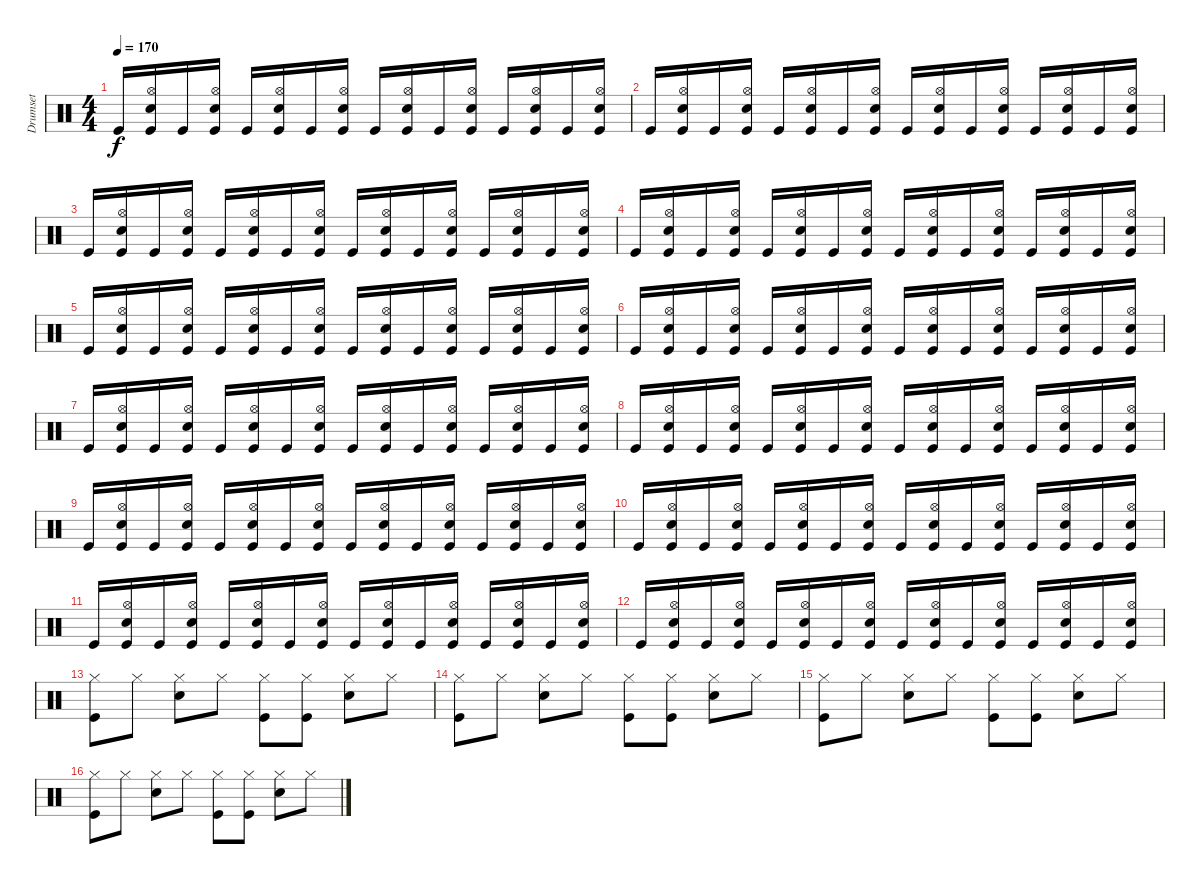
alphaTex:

\track ("Drumset" "Drumset") {instrument percussion}
\staff {score}
\articulation defaults
\ts (4 4)
\tempo 170
\clef neutral
\ks c "Kick (hit)".16{dy f}
("Hi-Hat (open)" "Snare (hit) 2" "Kick (hit)").16 "Kick (hit)".16 ("Hi-Hat (open)" "Snare (hit) 2" "Kick (hit)").16 "Kick (hit)".16 ("Hi-Hat (open)" "Snare (hit) 2" "Kick (hit)").16 "Kick (hit)".16 ("Hi-Hat (open)" "Snare (hit) 2" "Kick (hit)").16 "Kick (hit)".16 ("Hi-Hat (open)" "Snare (hit) 2" "Kick (hit)").16 "Kick (hit)".16 ("Hi-Hat (open)" "Snare (hit) 2" "Kick (hit)").16 "Kick (hit)".16 ("Hi-Hat (open)" "Snare (hit) 2" "Kick (hit)").16 "Kick (hit)".16 ("Hi-Hat (open)" "Snare (hit) 2" "Kick (hit)").16 |
"Kick (hit)".16 ("Hi-Hat (open)" "Snare (hit) 2" "Kick (hit)").16 "Kick (hit)".16 ("Hi-Hat (open)" "Snare (hit) 2" "Kick (hit)").16 "Kick (hit)".16 ("Hi-Hat (open)" "Snare (hit) 2" "Kick (hit)").16 "Kick (hit)".16 ("Hi-Hat (open)" "Snare (hit) 2" "Kick (hit)").16 "Kick (hit)".16 ("Hi-Hat (open)" "Snare (hit) 2" "Kick (hit)").16 "Kick (hit)".16 ("Hi-Hat (open)" "Snare (hit) 2" "Kick (hit)").16 "Kick (hit)".16 ("Hi-Hat (open)" "Snare (hit) 2" "Kick (hit)").16 "Kick (hit)".16 ("Hi-Hat (open)" "Snare (hit) 2" "Kick (hit)").16 |
"Kick (hit)".16 ("Hi-Hat (open)" "Snare (hit) 2" "Kick (hit)").16 "Kick (hit)".16 ("Hi-Hat (open)" "Snare (hit) 2" "Kick (hit)").16 "Kick (hit)".16 ("Hi-Hat (open)" "Snare (hit) 2" "Kick (hit)").16 "Kick (hit)".16 ("Hi-Hat (open)" "Snare (hit) 2" "Kick (hit)").16 "Kick (hit)".16 ("Hi-Hat (open)" "Snare (hit) 2" "Kick (hit)").16 "Kick (hit)".16 ("Hi-Hat (open)" "Snare (hit) 2" "Kick (hit)").16 "Kick (hit)".16 ("Hi-Hat (open)" "Snare (hit) 2" "Kick (hit)").16 "Kick (hit)".16 ("Hi-Hat (open)" "Snare (hit) 2" "Kick (hit)").16 |
"Kick (hit)".16 ("Hi-Hat (open)" "Snare (hit) 2" "Kick (hit)").16 "Kick (hit)".16 ("Hi-Hat (open)" "Snare (hit) 2" "Kick (hit)").16 "Kick (hit)".16 ("Hi-Hat (open)" "Snare (hit) 2" "Kick (hit)").16 "Kick (hit)".16 ("Hi-Hat (open)" "Snare (hit) 2" "Kick (hit)").16 "Kick (hit)".16 ("Hi-Hat (open)" "Snare (hit) 2" "Kick (hit)").16 "Kick (hit)".16 ("Hi-Hat (open)" "Snare (hit) 2" "Kick (hit)").16 "Kick (hit)".16 ("Hi-Hat (open)" "Snare (hit) 2" "Kick (hit)").16 "Kick (hit)".16 ("Hi-Hat (open)" "Snare (hit) 2" "Kick (hit)").16 |
"Kick (hit)".16 ("Hi-Hat (open)" "Snare (hit) 2" "Kick (hit)").16 "Kick (hit)".16 ("Hi-Hat (open)" "Snare (hit) 2" "Kick (hit)").16 "Kick (hit)".16 ("Hi-Hat (open)" "Snare (hit) 2" "Kick (hit)").16 "Kick (hit)".16 ("Hi-Hat (open)" "Snare (hit) 2" "Kick (hit)").16 "Kick (hit)".16 ("Hi-Hat (open)" "Snare (hit) 2" "Kick (hit)").16 "Kick (hit)".16 ("Hi-Hat (open)" "Snare (hit) 2" "Kick (hit)").16 "Kick (hit)".16 ("Hi-Hat (open)" "Snare (hit) 2" "Kick (hit)").16 "Kick (hit)".16 ("Hi-Hat (open)" "Snare (hit) 2" "Kick (hit)").16 |
"Kick (hit)".16 ("Hi-Hat (open)" "Snare (hit) 2" "Kick (hit)").16 "Kick (hit)".16 ("Hi-Hat (open)" "Snare (hit) 2" "Kick (hit)").16 "Kick (hit)".16 ("Hi-Hat (open)" "Snare (hit) 2" "Kick (hit)").16 "Kick (hit)".16 ("Hi-Hat (open)" "Snare (hit) 2" "Kick (hit)").16 "Kick (hit)".16 ("Hi-Hat (open)" "Snare (hit) 2" "Kick (hit)").16 "Kick (hit)".16 ("Hi-Hat (open)" "Snare (hit) 2" "Kick (hit)").16 "Kick (hit)".16 ("Hi-Hat (open)" "Snare (hit) 2" "Kick (hit)").16 "Kick (hit)".16 ("Hi-Hat (open)" "Snare (hit) 2" "Kick (hit)").16 |
"Kick (hit)".16 ("Hi-Hat (open)" "Snare (hit) 2" "Kick (hit)").16 "Kick (hit)".16 ("Hi-Hat (open)" "Snare (hit) 2" "Kick (hit)").16 "Kick (hit)".16 ("Hi-Hat (open)" "Snare (hit) 2" "Kick (hit)").16 "Kick (hit)".16 ("Hi-Hat (open)" "Snare (hit) 2" "Kick (hit)").16 "Kick (hit)".16 ("Hi-Hat (open)" "Snare (hit) 2" "Kick (hit)").16 "Kick (hit)".16 ("Hi-Hat (open)" "Snare (hit) 2" "Kick (hit)").16 "Kick (hit)".16 ("Hi-Hat (open)" "Snare (hit) 2" "Kick (hit)").16 "Kick (hit)".16 ("Hi-Hat (open)" "Snare (hit) 2" "Kick (hit)").16 |
"Kick (hit)".16 ("Hi-Hat (open)" "Snare (hit) 2" "Kick (hit)").16 "Kick (hit)".16 ("Hi-Hat (open)" "Snare (hit) 2" "Kick (hit)").16 "Kick (hit)".16 ("Hi-Hat (open)" "Snare (hit) 2" "Kick (hit)").16 "Kick (hit)".16 ("Hi-Hat (open)" "Snare (hit) 2" "Kick (hit)").16 "Kick (hit)".16 ("Hi-Hat (open)" "Snare (hit) 2" "Kick (hit)").16 "Kick (hit)".16 ("Hi-Hat (open)" "Snare (hit) 2" "Kick (hit)").16 "Kick (hit)".16 ("Hi-Hat (open)" "Snare (hit) 2" "Kick (hit)").16 "Kick (hit)".16 ("Hi-Hat (open)" "Snare (hit) 2" "Kick (hit)").16 |
"Kick (hit)".16 ("Hi-Hat (open)" "Snare (hit) 2" "Kick (hit)").16 "Kick (hit)".16 ("Hi-Hat (open)" "Snare (hit) 2" "Kick (hit)").16 "Kick (hit)".16 ("Hi-Hat (open)" "Snare (hit) 2" "Kick (hit)").16 "Kick (hit)".16 ("Hi-Hat (open)" "Snare (hit) 2" "Kick (hit)").16 "Kick (hit)".16 ("Hi-Hat (open)" "Snare (hit) 2" "Kick (hit)").16 "Kick (hit)".16 ("Hi-Hat (open)" "Snare (hit) 2" "Kick (hit)").16 "Kick (hit)".16 ("Hi-Hat (open)" "Snare (hit) 2" "Kick (hit)").16 "Kick (hit)".16 ("Hi-Hat (open)" "Snare (hit) 2" "Kick (hit)").16 |
"Kick (hit)".16 ("Hi-Hat (open)" "Snare (hit) 2" "Kick (hit)").16 "Kick (hit)".16 ("Hi-Hat (open)" "Snare (hit) 2" "Kick (hit)").16 "Kick (hit)".16 ("Hi-Hat (open)" "Snare (hit) 2" "Kick (hit)").16 "Kick (hit)".16 ("Hi-Hat (open)" "Snare (hit) 2" "Kick (hit)").16 "Kick (hit)".16 ("Hi-Hat (open)" "Snare (hit) 2" "Kick (hit)").16 "Kick (hit)".16 ("Hi-Hat (open)" "Snare (hit) 2" "Kick (hit)").16 "Kick (hit)".16 ("Hi-Hat (open)" "Snare (hit) 2" "Kick (hit)").16 "Kick (hit)".16 ("Hi-Hat (open)" "Snare (hit) 2" "Kick (hit)").16 |
"Kick (hit)".16 ("Hi-Hat (open)" "Snare (hit) 2" "Kick (hit)").16 "Kick (hit)".16 ("Hi-Hat (open)" "Snare (hit) 2" "Kick (hit)").16 "Kick (hit)".16 ("Hi-Hat (open)" "Snare (hit) 2" "Kick (hit)").16 "Kick (hit)".16 ("Hi-Hat (open)" "Snare (hit) 2" "Kick (hit)").16 "Kick (hit)".16 ("Hi-Hat (open)" "Snare (hit) 2" "Kick (hit)").16 "Kick (hit)".16 ("Hi-Hat (open)" "Snare (hit) 2" "Kick (hit)").16 "Kick (hit)".16 ("Hi-Hat (open)" "Snare (hit) 2" "Kick (hit)").16 "Kick (hit)".16 ("Hi-Hat (open)" "Snare (hit) 2" "Kick (hit)").16 |
"Kick (hit)".16 ("Hi-Hat (open)" "Snare (hit) 2" "Kick (hit)").16 "Kick (hit)".16 ("Hi-Hat (open)" "Snare (hit) 2" "Kick (hit)").16 "Kick (hit)".16 ("Hi-Hat (open)" "Snare (hit) 2" "Kick (hit)").16 "Kick (hit)".16 ("Hi-Hat (open)" "Snare (hit) 2" "Kick (hit)").16 "Kick (hit)".16 ("Hi-Hat (open)" "Snare (hit) 2" "Kick (hit)").16 "Kick (hit)".16 ("Hi-Hat (open)" "Snare (hit) 2" "Kick (hit)").16 "Kick (hit)".16 ("Hi-Hat (open)" "Snare (hit) 2" "Kick (hit)").16 "Kick (hit)".16 ("Hi-Hat (open)" "Snare (hit) 2" "Kick (hit)").16 |
("Hi-Hat (closed)" "Kick (hit)").8 "Hi-Hat (closed)".8 ("Hi-Hat (closed)" "Snare (hit) 2").8 "Hi-Hat (closed)".8 ("Hi-Hat (closed)" "Kick (hit)").8 ("Hi-Hat (closed)" "Kick (hit)").8 ("Hi-Hat (closed)" "Snare (hit) 2").8 "Hi-Hat (closed)".8 |
("Hi-Hat (closed)" "Kick (hit)").8 "Hi-Hat (closed)".8 ("Hi-Hat (closed)" "Snare (hit) 2").8 "Hi-Hat (closed)".8 ("Hi-Hat (closed)" "Kick (hit)").8 ("Hi-Hat (closed)" "Kick (hit)").8 ("Hi-Hat (closed)" "Snare (hit) 2").8 "Hi-Hat (closed)".8 |
("Hi-Hat (closed)" "Kick (hit)").8 "Hi-Hat (closed)".8 ("Hi-Hat (closed)" "Snare (hit) 2").8 "Hi-Hat (closed)".8 ("Hi-Hat (closed)" "Kick (hit)").8 ("Hi-Hat (closed)" "Kick (hit)").8 ("Hi-Hat (closed)" "Snare (hit) 2").8 "Hi-Hat (closed)".8 |
("Hi-Hat (closed)" "Kick (hit)").8 "Hi-Hat (closed)".8 ("Hi-Hat (closed)" "Snare (hit) 2").8 "Hi-Hat (closed)".8 ("Hi-Hat (closed)" "Kick (hit)").8 ("Hi-Hat (closed)" "Kick (hit)").8 ("Hi-Hat (closed)" "Snare (hit) 2").8 "Hi-Hat (closed)".8
